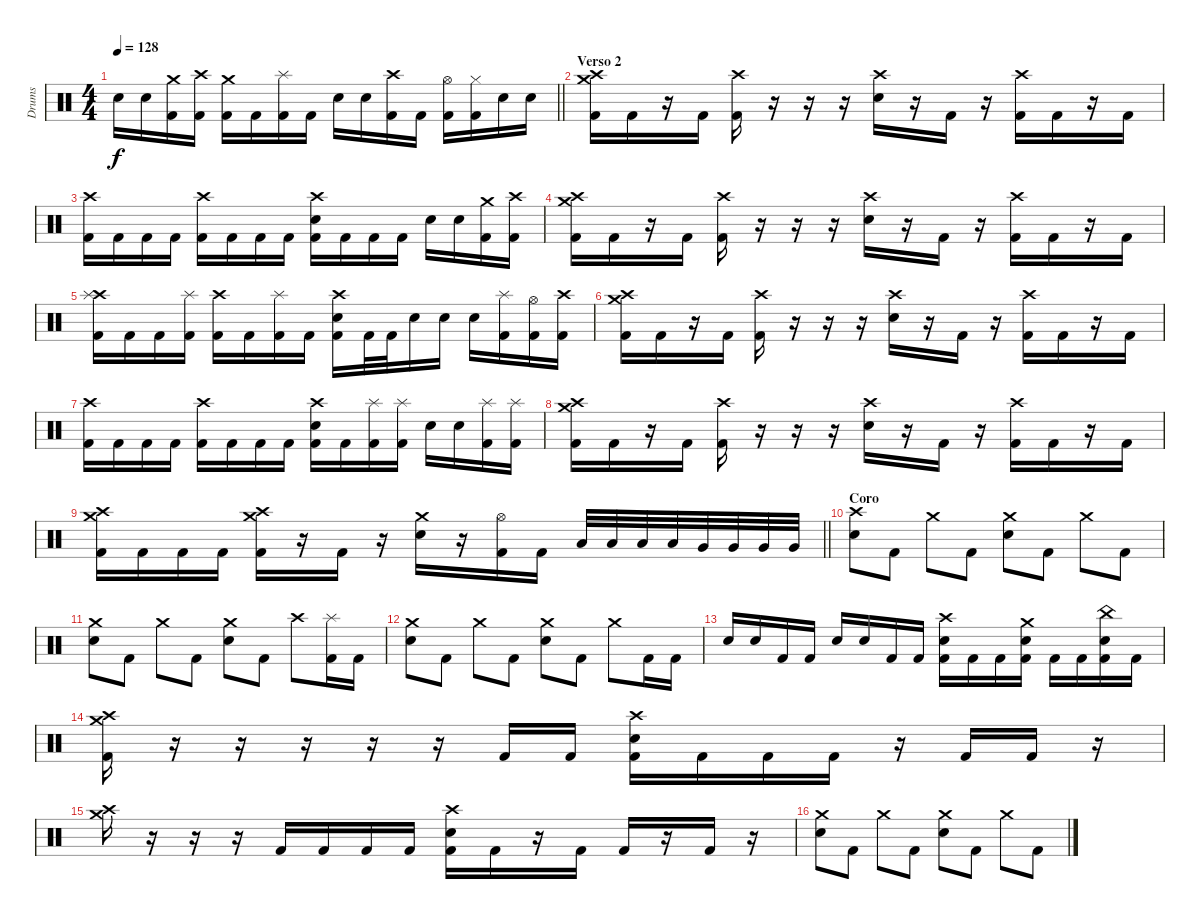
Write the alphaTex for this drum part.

\track ("Drums" "Drums") {instrument percussion}
\staff {score}
\articulation defaults
\ts (4 4)
\tempo 128
\clef neutral
\barLineRight lightlight
\ks c "Electric Snare (hit)".16{dy f} "Electric Snare (hit)".16
("Crash medium (hit)" "Kick (hit) 2").16 ("Crash high (hit)" "Kick (hit) 2").16 ("Crash medium (hit)" "Kick (hit) 2").16 "Kick (hit) 2".16 ("Splash (hit)" "Kick (hit) 2").16 "Kick (hit) 2".16 "Electric Snare (hit)".16 "Electric Snare (hit)".16 ("Crash high (hit)" "Kick (hit) 2").16 "Kick (hit) 2".16 ("Hi-Hat (open)" "Kick (hit) 2").16 ("Hi-Hat (closed)" "Kick (hit) 2").16 "Electric Snare (hit)".16 "Electric Snare (hit)".16 |
\section ("" "Verso 2")
("Crash high (hit)" "Crash medium (hit)" "Kick (hit) 2").16 "Kick (hit) 2".16 r.16 "Kick (hit) 2".16 ("Crash high (hit)" "Kick (hit) 2").16 r.16 r.16 r.16 ("Crash high (hit)" "Electric Snare (hit)").16 r.16 "Kick (hit) 2".16 r.16 ("Crash high (hit)" "Kick (hit) 2").16 "Kick (hit) 2".16 r.16 "Kick (hit) 2".16 |
("Crash high (hit)" "Kick (hit) 2").16 "Kick (hit) 2".16 "Kick (hit) 2".16 "Kick (hit) 2".16 ("Crash high (hit)" "Kick (hit) 2").16 "Kick (hit) 2".16 "Kick (hit) 2".16 "Kick (hit) 2".16 ("Crash high (hit)" "Electric Snare (hit)" "Kick (hit) 2").16 "Kick (hit) 2".16 "Kick (hit) 2".16 "Kick (hit) 2".16 "Electric Snare (hit)".16 "Electric Snare (hit)".16 ("Crash medium (hit)" "Kick (hit) 2").16 ("Crash high (hit)" "Kick (hit) 2").16 |
("Crash high (hit)" "Crash medium (hit)" "Kick (hit) 2").16 "Kick (hit) 2".16 r.16 "Kick (hit) 2".16 ("Crash high (hit)" "Kick (hit) 2").16 r.16 r.16 r.16 ("Crash high (hit)" "Electric Snare (hit)").16 r.16 "Kick (hit) 2".16 r.16 ("Crash high (hit)" "Kick (hit) 2").16 "Kick (hit) 2".16 r.16 "Kick (hit) 2".16 |
("Crash high (hit)" "Splash (hit)" "Kick (hit) 2").16 "Kick (hit) 2".16 "Kick (hit) 2".16 ("Splash (hit)" "Kick (hit) 2").16 ("Crash high (hit)" "Kick (hit) 2").16 "Kick (hit) 2".16 ("Splash (hit)" "Kick (hit) 2").16 "Kick (hit) 2".16 ("Crash high (hit)" "Electric Snare (hit)" "Kick (hit) 2").16 "Kick (hit) 2".32 "Kick (hit) 2".32 "Electric Snare (hit)".16 "Electric Snare (hit)".16 "Electric Snare (hit)".16 ("Splash (hit)" "Kick (hit) 2").16 ("Hi-Hat (open)" "Kick (hit) 2").16 ("Crash high (hit)" "Kick (hit) 2").16 |
("Crash high (hit)" "Crash medium (hit)" "Kick (hit) 2").16 "Kick (hit) 2".16 r.16 "Kick (hit) 2".16 ("Crash high (hit)" "Kick (hit) 2").16 r.16 r.16 r.16 ("Crash high (hit)" "Electric Snare (hit)").16 r.16 "Kick (hit) 2".16 r.16 ("Crash high (hit)" "Kick (hit) 2").16 "Kick (hit) 2".16 r.16 "Kick (hit) 2".16 |
("Crash high (hit)" "Kick (hit) 2").16 "Kick (hit) 2".16 "Kick (hit) 2".16 "Kick (hit) 2".16 ("Crash high (hit)" "Kick (hit) 2").16 "Kick (hit) 2".16 "Kick (hit) 2".16 "Kick (hit) 2".16 ("Crash high (hit)" "Electric Snare (hit)" "Kick (hit) 2").16 "Kick (hit) 2".16 ("Splash (hit)" "Kick (hit) 2").16 ("Splash (hit)" "Kick (hit) 2").16 "Electric Snare (hit)".16 "Electric Snare (hit)".16 ("Splash (hit)" "Kick (hit) 2").16 ("Splash (hit)" "Kick (hit) 2").16 |
("Crash high (hit)" "Crash medium (hit)" "Kick (hit) 2").16 "Kick (hit) 2".16 r.16 "Kick (hit) 2".16 ("Crash high (hit)" "Kick (hit) 2").16 r.16 r.16 r.16 ("Crash high (hit)" "Electric Snare (hit)").16 r.16 "Kick (hit) 2".16 r.16 ("Crash high (hit)" "Kick (hit) 2").16 "Kick (hit) 2".16 r.16 "Kick (hit) 2".16 |
\barLineRight lightlight
("Crash medium (hit)" "Crash high (hit)" "Kick (hit) 2").16 "Kick (hit) 2".16 "Kick (hit) 2".16 "Kick (hit) 2".16 ("Crash medium (hit)" "Crash high (hit)" "Kick (hit) 2").16 r.16 "Kick (hit) 2".16 r.16 ("Crash medium (hit)" "Electric Snare (hit)").16 r.16 ("Hi-Hat (open)" "Kick (hit) 2").16 "Kick (hit) 2".16 "Low Tom (hit)".32 "Low Tom (hit)".32 "Low Tom (hit)".32 "Low Tom (hit)".32 "Very Low Tom (hit)".32 "Very Low Tom (hit)".32 "Very Low Tom (hit)".32 "Very Low Tom (hit)".32 |
\section ("" "Coro")
("Crash high (hit)" "Electric Snare (hit)").8 "Kick (hit) 2".8 "Crash medium (hit)".8 "Kick (hit) 2".8 ("Crash medium (hit)" "Electric Snare (hit)").8 "Kick (hit) 2".8 "Crash medium (hit)".8 "Kick (hit) 2".8 |
("Crash medium (hit)" "Electric Snare (hit)").8 "Kick (hit) 2".8 "Crash medium (hit)".8 "Kick (hit) 2".8 ("Crash medium (hit)" "Electric Snare (hit)").8 "Kick (hit) 2".8 "Crash high (hit)".8 ("Splash (hit)" "Kick (hit) 2").16 "Kick (hit) 2".16 |
("Crash medium (hit)" "Electric Snare (hit)").8 "Kick (hit) 2".8 "Crash medium (hit)".8 "Kick (hit) 2".8 ("Crash medium (hit)" "Electric Snare (hit)").8 "Kick (hit) 2".8 "Crash medium (hit)".8 "Kick (hit) 2".16 "Kick (hit) 2".16 |
"Electric Snare (hit)".16 "Electric Snare (hit)".16 "Kick (hit) 2".16 "Kick (hit) 2".16 "Electric Snare (hit)".16 "Electric Snare (hit)".16 "Kick (hit) 2".16 "Kick (hit) 2".16 ("Crash high (hit)" "Electric Snare (hit)" "Kick (hit) 2").16 "Kick (hit) 2".16 "Kick (hit) 2".16 ("Crash medium (hit)" "Electric Snare (hit)" "Kick (hit) 2").16 "Kick (hit) 2".16 "Kick (hit) 2".16 ("China (hit)" "Electric Snare (hit)" "Kick (hit) 2").16 "Kick (hit) 2".16 |
("Crash high (hit)" "Crash medium (hit)" "Kick (hit) 2").16 r.16 r.16 r.16 r.16 r.16 "Kick (hit) 2".16 "Kick (hit) 2".16 ("Crash high (hit)" "Electric Snare (hit)" "Kick (hit) 2").16 "Kick (hit) 2".16 "Kick (hit) 2".16 "Kick (hit) 2".16 r.16 "Kick (hit) 2".16 "Kick (hit) 2".16 r.16 |
("Crash high (hit)" "Crash medium (hit)").16 r.16 r.16 r.16 "Kick (hit) 2".16 "Kick (hit) 2".16 "Kick (hit) 2".16 "Kick (hit) 2".16 ("Crash high (hit)" "Electric Snare (hit)" "Kick (hit) 2").16 "Kick (hit) 2".16 r.16 "Kick (hit) 2".16 "Kick (hit) 2".16 r.16 "Kick (hit) 2".16 r.16 |
("Crash medium (hit)" "Electric Snare (hit)").8 "Kick (hit) 2".8 "Crash medium (hit)".8 "Kick (hit) 2".8 ("Crash medium (hit)" "Electric Snare (hit)").8 "Kick (hit) 2".8 "Crash medium (hit)".8 "Kick (hit) 2".8
